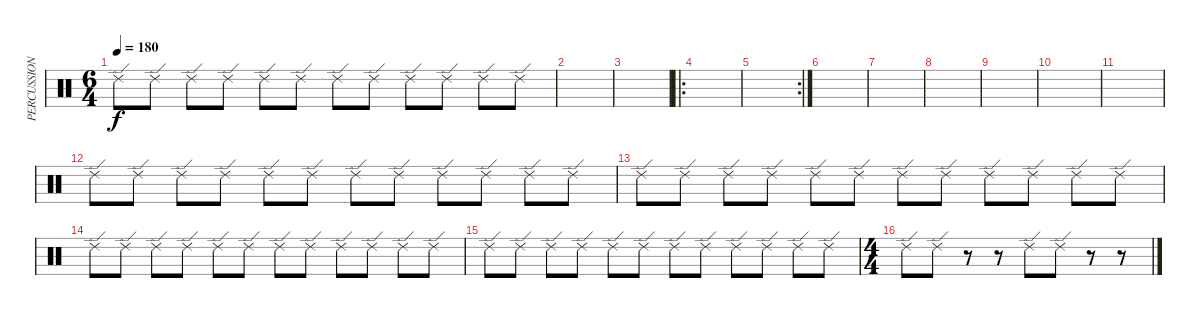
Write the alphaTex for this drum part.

\track ("PERCUSSION" "PERCUSSION") {instrument percussion}
\staff {score}
\articulation defaults
\ts (6 4)
\tempo 180
\clef neutral
\ks c "Ride (edge) 2".8{dy f} "Ride (edge) 2".8 "Ride (edge) 2".8 "Ride (edge) 2".8 "Ride (edge) 2".8 "Ride (edge) 2".8 "Ride (edge) 2".8 "Ride (edge) 2".8 "Ride (edge) 2".8 "Ride (edge) 2".8 "Ride (edge) 2".8 "Ride (edge) 2".8
|
|
|
\ro
|
\rc 2
|
|
|
|
|
|
|
"Ride (edge) 2".8 "Ride (edge) 2".8 "Ride (edge) 2".8 "Ride (edge) 2".8 "Ride (edge) 2".8 "Ride (edge) 2".8 "Ride (edge) 2".8 "Ride (edge) 2".8 "Ride (edge) 2".8 "Ride (edge) 2".8 "Ride (edge) 2".8 "Ride (edge) 2".8 |
"Ride (edge) 2".8 "Ride (edge) 2".8 "Ride (edge) 2".8 "Ride (edge) 2".8 "Ride (edge) 2".8 "Ride (edge) 2".8 "Ride (edge) 2".8 "Ride (edge) 2".8 "Ride (edge) 2".8 "Ride (edge) 2".8 "Ride (edge) 2".8 "Ride (edge) 2".8 |
"Ride (edge) 2".8 "Ride (edge) 2".8 "Ride (edge) 2".8 "Ride (edge) 2".8 "Ride (edge) 2".8 "Ride (edge) 2".8 "Ride (edge) 2".8 "Ride (edge) 2".8 "Ride (edge) 2".8 "Ride (edge) 2".8 "Ride (edge) 2".8 "Ride (edge) 2".8 |
"Ride (edge) 2".8 "Ride (edge) 2".8 "Ride (edge) 2".8 "Ride (edge) 2".8 "Ride (edge) 2".8 "Ride (edge) 2".8 "Ride (edge) 2".8 "Ride (edge) 2".8 "Ride (edge) 2".8 "Ride (edge) 2".8 "Ride (edge) 2".8 "Ride (edge) 2".8 |
\ts (4 4)
"Ride (edge) 2".8 "Ride (edge) 2".8 r.8 r.8 "Ride (edge) 2".8 "Ride (edge) 2".8 r.8 r.8
